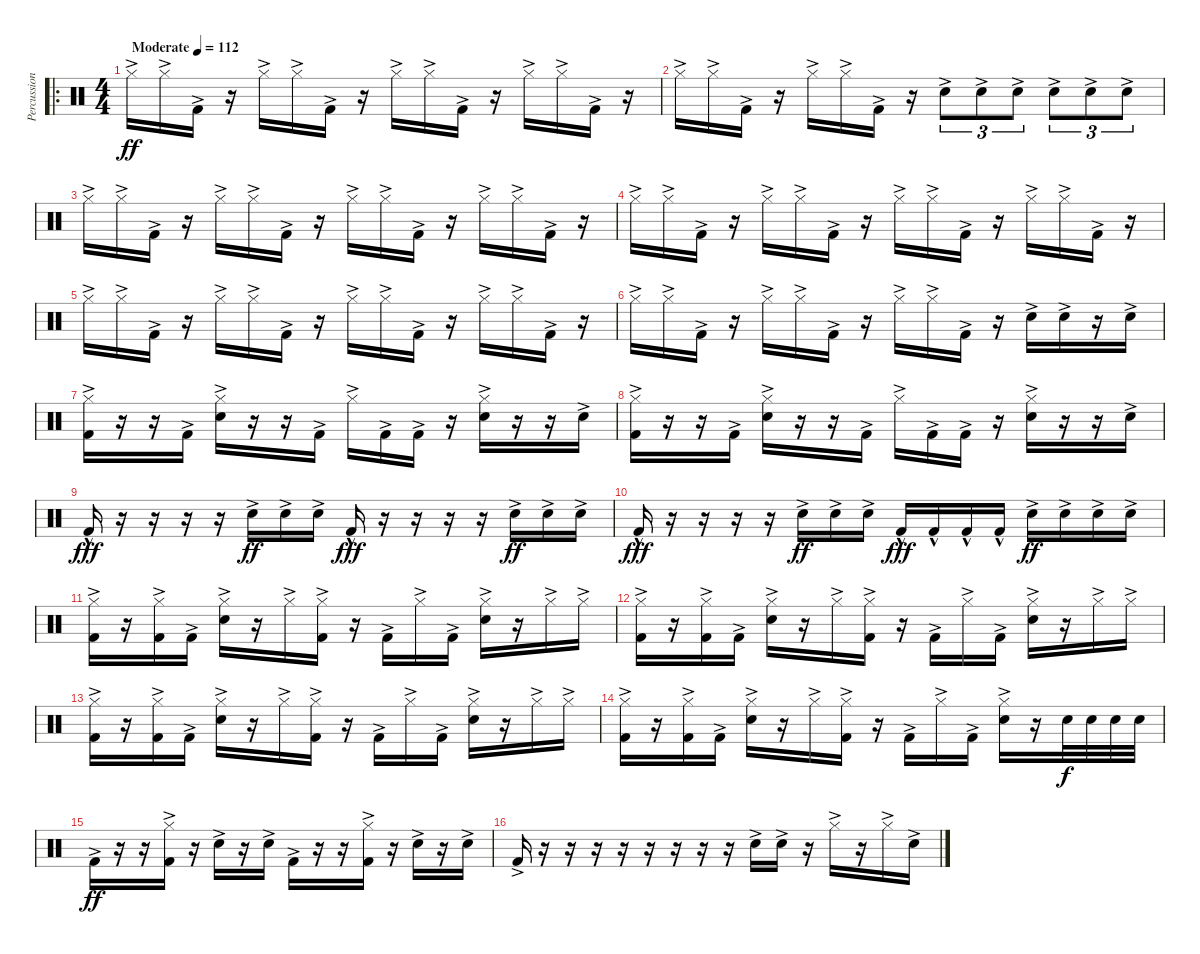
\track ("Percussion" "Percussion") {instrument percussion}
\staff {score}
\articulation defaults
\ro
\ts (4 4)
\tempo (112 "Moderate")
\clef neutral
\ks c "Hi-Hat (closed)"{ac}.16{dy ff} "Hi-Hat (closed)"{ac}.16 "Kick (hit) 2"{ac}.16
r.16 "Hi-Hat (closed)"{ac}.16 "Hi-Hat (closed)"{ac}.16 "Kick (hit) 2"{ac}.16 r.16 "Hi-Hat (closed)"{ac}.16 "Hi-Hat (closed)"{ac}.16 "Kick (hit) 2"{ac}.16 r.16 "Hi-Hat (closed)"{ac}.16 "Hi-Hat (closed)"{ac}.16 "Kick (hit) 2"{ac}.16 r.16 |
"Hi-Hat (closed)"{ac}.16 "Hi-Hat (closed)"{ac}.16 "Kick (hit) 2"{ac}.16 r.16 "Hi-Hat (closed)"{ac}.16 "Hi-Hat (closed)"{ac}.16 "Kick (hit) 2"{ac}.16 r.16 "Snare (hit) 2"{ac}.8{tu (3 2)} "Snare (hit) 2"{ac}.8{tu (3 2)} "Snare (hit) 2"{ac}.8{tu (3 2)} "Snare (hit) 2"{ac}.8{tu (3 2)} "Snare (hit) 2"{ac}.8{tu (3 2)} "Snare (hit) 2"{ac}.8{tu (3 2)} |
"Hi-Hat (closed)"{ac}.16 "Hi-Hat (closed)"{ac}.16 "Kick (hit) 2"{ac}.16 r.16 "Hi-Hat (closed)"{ac}.16 "Hi-Hat (closed)"{ac}.16 "Kick (hit) 2"{ac}.16 r.16 "Hi-Hat (closed)"{ac}.16 "Hi-Hat (closed)"{ac}.16 "Kick (hit) 2"{ac}.16 r.16 "Hi-Hat (closed)"{ac}.16 "Hi-Hat (closed)"{ac}.16 "Kick (hit) 2"{ac}.16 r.16 |
"Hi-Hat (closed)"{ac}.16 "Hi-Hat (closed)"{ac}.16 "Kick (hit) 2"{ac}.16 r.16 "Hi-Hat (closed)"{ac}.16 "Hi-Hat (closed)"{ac}.16 "Kick (hit) 2"{ac}.16 r.16 "Hi-Hat (closed)"{ac}.16 "Hi-Hat (closed)"{ac}.16 "Kick (hit) 2"{ac}.16 r.16 "Hi-Hat (closed)"{ac}.16 "Hi-Hat (closed)"{ac}.16 "Kick (hit) 2"{ac}.16 r.16 |
"Hi-Hat (closed)"{ac}.16 "Hi-Hat (closed)"{ac}.16 "Kick (hit) 2"{ac}.16 r.16 "Hi-Hat (closed)"{ac}.16 "Hi-Hat (closed)"{ac}.16 "Kick (hit) 2"{ac}.16 r.16 "Hi-Hat (closed)"{ac}.16 "Hi-Hat (closed)"{ac}.16 "Kick (hit) 2"{ac}.16 r.16 "Hi-Hat (closed)"{ac}.16 "Hi-Hat (closed)"{ac}.16 "Kick (hit) 2"{ac}.16 r.16 |
"Hi-Hat (closed)"{ac}.16 "Hi-Hat (closed)"{ac}.16 "Kick (hit) 2"{ac}.16 r.16 "Hi-Hat (closed)"{ac}.16 "Hi-Hat (closed)"{ac}.16 "Kick (hit) 2"{ac}.16 r.16 "Hi-Hat (closed)"{ac}.16 "Hi-Hat (closed)"{ac}.16 "Kick (hit) 2"{ac}.16 r.16 "Snare (hit) 2"{ac}.16 "Snare (hit) 2"{ac}.16 r.16 "Snare (hit) 2"{ac}.16 |
("Hi-Hat (closed)"{ac} "Kick (hit) 2"{ac}).16 r.16 r.16 "Kick (hit) 2"{ac}.16 ("Hi-Hat (closed)"{ac} "Snare (hit) 2"{ac}).16 r.16 r.16 "Kick (hit) 2"{ac}.16 "Hi-Hat (closed)"{ac}.16 "Kick (hit) 2"{ac}.16 "Kick (hit) 2"{ac}.16 r.16 ("Hi-Hat (closed)"{ac} "Snare (hit) 2"{ac}).16 r.16 r.16 "Snare (hit) 2"{ac}.16 |
("Hi-Hat (closed)"{ac} "Kick (hit) 2"{ac}).16 r.16 r.16 "Kick (hit) 2"{ac}.16 ("Hi-Hat (closed)"{ac} "Snare (hit) 2"{ac}).16 r.16 r.16 "Kick (hit) 2"{ac}.16 "Hi-Hat (closed)"{ac}.16 "Kick (hit) 2"{ac}.16 "Kick (hit) 2"{ac}.16 r.16 ("Hi-Hat (closed)"{ac} "Snare (hit) 2"{ac}).16 r.16 r.16 "Snare (hit) 2"{ac}.16 |
"Kick (hit) 2"{hac}.16{dy fff} r.16 r.16 r.16 r.16 "Snare (hit) 2"{ac}.16{dy ff} "Snare (hit) 2"{ac}.16 "Snare (hit) 2"{ac}.16 "Kick (hit) 2"{hac}.16{dy fff} r.16 r.16 r.16 r.16 "Snare (hit) 2"{ac}.16{dy ff} "Snare (hit) 2"{ac}.16 "Snare (hit) 2"{ac}.16 |
"Kick (hit) 2"{hac}.16{dy fff} r.16 r.16 r.16 r.16 "Snare (hit) 2"{ac}.16{dy ff} "Snare (hit) 2"{ac}.16 "Snare (hit) 2"{ac}.16 "Kick (hit) 2"{hac}.16{dy fff} "Kick (hit) 2"{hac}.16 "Kick (hit) 2"{hac}.16 "Kick (hit) 2"{hac}.16 "Snare (hit) 2"{ac}.16{dy ff} "Snare (hit) 2"{ac}.16 "Snare (hit) 2"{ac}.16 "Snare (hit) 2"{ac}.16 |
("Hi-Hat (closed)"{ac} "Kick (hit) 2"{ac}).16 r.16 ("Hi-Hat (closed)"{ac} "Kick (hit) 2"{ac}).16 "Kick (hit) 2"{ac}.16 ("Hi-Hat (closed)"{ac} "Snare (hit) 2"{ac}).16 r.16 "Hi-Hat (closed)"{ac}.16 ("Hi-Hat (closed)"{ac} "Kick (hit) 2"{ac}).16 r.16 "Kick (hit) 2"{ac}.16 "Hi-Hat (closed)"{ac}.16 "Kick (hit) 2"{ac}.16 ("Hi-Hat (closed)"{ac} "Snare (hit) 2"{ac}).16 r.16 "Hi-Hat (closed)"{ac}.16 "Hi-Hat (closed)"{ac}.16 |
("Hi-Hat (closed)"{ac} "Kick (hit) 2"{ac}).16 r.16 ("Hi-Hat (closed)"{ac} "Kick (hit) 2"{ac}).16 "Kick (hit) 2"{ac}.16 ("Hi-Hat (closed)"{ac} "Snare (hit) 2"{ac}).16 r.16 "Hi-Hat (closed)"{ac}.16 ("Hi-Hat (closed)"{ac} "Kick (hit) 2"{ac}).16 r.16 "Kick (hit) 2"{ac}.16 "Hi-Hat (closed)"{ac}.16 "Kick (hit) 2"{ac}.16 ("Hi-Hat (closed)"{ac} "Snare (hit) 2"{ac}).16 r.16 "Hi-Hat (closed)"{ac}.16 "Hi-Hat (closed)"{ac}.16 |
("Hi-Hat (closed)"{ac} "Kick (hit) 2"{ac}).16 r.16 ("Hi-Hat (closed)"{ac} "Kick (hit) 2"{ac}).16 "Kick (hit) 2"{ac}.16 ("Hi-Hat (closed)"{ac} "Snare (hit) 2"{ac}).16 r.16 "Hi-Hat (closed)"{ac}.16 ("Hi-Hat (closed)"{ac} "Kick (hit) 2"{ac}).16 r.16 "Kick (hit) 2"{ac}.16 "Hi-Hat (closed)"{ac}.16 "Kick (hit) 2"{ac}.16 ("Hi-Hat (closed)"{ac} "Snare (hit) 2"{ac}).16 r.16 "Hi-Hat (closed)"{ac}.16 "Hi-Hat (closed)"{ac}.16 |
("Hi-Hat (closed)"{ac} "Kick (hit) 2"{ac}).16 r.16 ("Hi-Hat (closed)"{ac} "Kick (hit) 2"{ac}).16 "Kick (hit) 2"{ac}.16 ("Hi-Hat (closed)"{ac} "Snare (hit) 2"{ac}).16 r.16 "Hi-Hat (closed)"{ac}.16 ("Hi-Hat (closed)"{ac} "Kick (hit) 2"{ac}).16 r.16 "Kick (hit) 2"{ac}.16 "Hi-Hat (closed)"{ac}.16 "Kick (hit) 2"{ac}.16 ("Hi-Hat (closed)"{ac} "Snare (hit) 2"{ac}).16 r.16 "Snare (hit) 2".32{dy f} "Snare (hit) 2".32 "Snare (hit) 2".32 "Snare (hit) 2".32 |
"Kick (hit) 2"{ac}.16{dy ff} r.16 r.16 ("Hi-Hat (closed)"{ac} "Kick (hit) 2"{ac}).16 r.16 "Snare (hit) 2"{ac}.16 r.16 "Snare (hit) 2"{ac}.16 "Kick (hit) 2"{ac}.16 r.16 r.16 ("Hi-Hat (closed)"{ac} "Kick (hit) 2"{ac}).16 r.16 "Snare (hit) 2"{ac}.16 r.16 "Snare (hit) 2"{ac}.16 |
"Kick (hit) 2"{ac}.16 r.16 r.16 r.16 r.16 r.16 r.16 r.16 r.16 "Snare (hit) 2"{ac}.16 "Snare (hit) 2"{ac}.16 r.16 "Hi-Hat (closed)"{ac}.16 r.16 "Hi-Hat (closed)"{ac}.16 "Snare (hit) 2"{ac}.16
